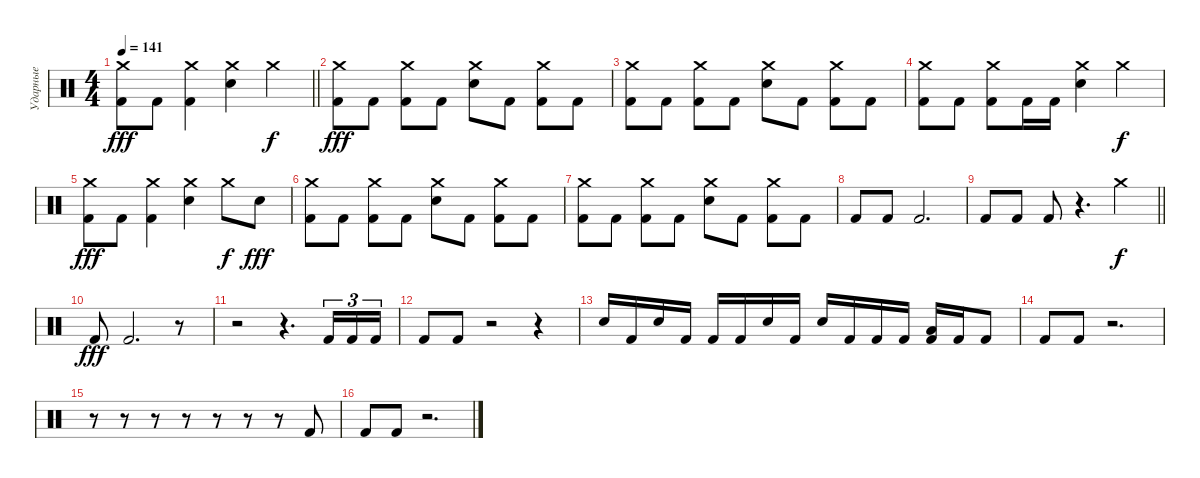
\track ("Ударные" "Ударные") {instrument percussion}
\staff {score}
\articulation defaults
\ts (4 4)
\tempo 141
\clef neutral
\barLineRight lightlight
\ks c
("Crash medium (hit)" "Kick (hit) 2").8{dy fff} "Kick (hit) 2".8 ("Crash medium (hit)" "Kick (hit) 2").4 ("Crash medium (hit)" "Electric Snare (hit)").4 "Crash medium (hit)".4{dy f} |
("Crash medium (hit)" "Kick (hit) 2").8{dy fff} "Kick (hit) 2".8 ("Crash medium (hit)" "Kick (hit) 2").8 "Kick (hit) 2".8 ("Crash medium (hit)" "Electric Snare (hit)").8 "Kick (hit) 2".8 ("Crash medium (hit)" "Kick (hit) 2").8 "Kick (hit) 2".8 |
("Crash medium (hit)" "Kick (hit) 2").8 "Kick (hit) 2".8 ("Crash medium (hit)" "Kick (hit) 2").8 "Kick (hit) 2".8 ("Crash medium (hit)" "Electric Snare (hit)").8 "Kick (hit) 2".8 ("Crash medium (hit)" "Kick (hit) 2").8 "Kick (hit) 2".8 |
("Crash medium (hit)" "Kick (hit) 2").8 "Kick (hit) 2".8 ("Crash medium (hit)" "Kick (hit) 2").8 "Kick (hit) 2".16 "Kick (hit) 2".16 ("Crash medium (hit)" "Electric Snare (hit)").4 "Crash medium (hit)".4{dy f} |
("Crash medium (hit)" "Kick (hit) 2").8{dy fff} "Kick (hit) 2".8 ("Crash medium (hit)" "Kick (hit) 2").4 ("Crash medium (hit)" "Electric Snare (hit)").4 "Crash medium (hit)".8{dy f} "Electric Snare (hit)".8{dy fff} |
("Crash medium (hit)" "Kick (hit) 2").8 "Kick (hit) 2".8 ("Crash medium (hit)" "Kick (hit) 2").8 "Kick (hit) 2".8 ("Crash medium (hit)" "Electric Snare (hit)").8 "Kick (hit) 2".8 ("Crash medium (hit)" "Kick (hit) 2").8 "Kick (hit) 2".8 |
("Crash medium (hit)" "Kick (hit) 2").8 "Kick (hit) 2".8 ("Crash medium (hit)" "Kick (hit) 2").8 "Kick (hit) 2".8 ("Crash medium (hit)" "Electric Snare (hit)").8 "Kick (hit) 2".8 ("Crash medium (hit)" "Kick (hit) 2").8 "Kick (hit) 2".8 |
"Kick (hit) 2".8 "Kick (hit) 2".8 "Kick (hit) 2".2{d} |
\barLineRight lightlight "Kick (hit) 2".8 "Kick (hit) 2".8 "Kick (hit) 2".8
r.4{d} "Crash medium (hit)".4{dy f} |
"Kick (hit) 2".8{dy fff} "Kick (hit) 2".2{d} r.8 |
r.2 r.4{d} "Kick (hit) 2".16{tu (3 2)} "Kick (hit) 2".16{tu (3 2)} "Kick (hit) 2".16{tu (3 2)} |
"Kick (hit) 2".8 "Kick (hit) 2".8 r.2 r.4 |
"Electric Snare (hit)".16 "Kick (hit) 2".16 "Electric Snare (hit)".16 "Kick (hit) 2".16 "Kick (hit) 2".16 "Kick (hit) 2".16 "Electric Snare (hit)".16 "Kick (hit) 2".16 "Electric Snare (hit)".16 "Kick (hit) 2".16 "Kick (hit) 2".16 "Kick (hit) 2".16 ("Low Tom (hit)" "Kick (hit) 2").16 "Kick (hit) 2".16 "Kick (hit) 2".8 |
"Kick (hit) 2".8 "Kick (hit) 2".8 r.2{d} |
r.8 r.8 r.8 r.8 r.8 r.8 r.8 "Kick (hit) 2".8 |
"Kick (hit) 2".8 "Kick (hit) 2".8 r.2{d}
